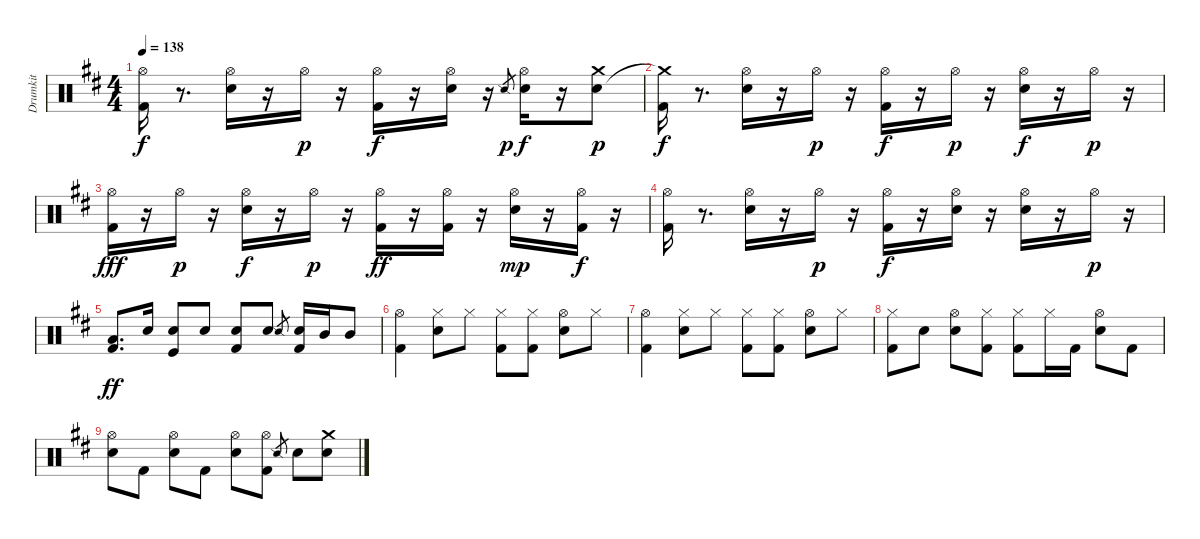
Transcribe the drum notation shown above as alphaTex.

\track ("Drumkit" "Drumkit") {instrument percussion}
\staff {score}
\articulation defaults
\ts (4 4)
\tempo 138
\clef neutral
\ks d
("Kick (hit) 2" "Hi-Hat (open)").16{dy f} r.8{d} ("Snare (hit) 2" "Hi-Hat (open)").16 r.16 "Hi-Hat (open)".16{dy p} r.16 ("Kick (hit) 2" "Hi-Hat (open)").16{dy f} r.16 ("Snare (hit) 2" "Hi-Hat (open)").16 r.16 "Snare (side stick) 2".8{gr dy p} ("Snare (hit) 2" "Hi-Hat (open)").16{dy f} r.16 ("Crash medium (hit)" "Snare (hit) 2").8{dy p} |
("Kick (hit) 2" "Crash medium (hit)"{t}).16{dy f} r.8{d} ("Snare (hit) 2" "Hi-Hat (open)").16 r.16 "Hi-Hat (open)".16{dy p} r.16 ("Kick (hit) 2" "Hi-Hat (open)").16{dy f} r.16 "Hi-Hat (open)".16{dy p} r.16 ("Snare (hit) 2" "Hi-Hat (open)").16{dy f} r.16 "Hi-Hat (open)".16{dy p} r.16 |
("Kick (hit) 2" "Hi-Hat (open)").16{dy fff} r.16 "Hi-Hat (open)".16{dy p} r.16 ("Snare (hit) 2" "Hi-Hat (open)").16{dy f} r.16 "Hi-Hat (open)".16{dy p} r.16 ("Kick (hit) 2" "Hi-Hat (open)").16{dy ff} r.16 ("Kick (hit) 2" "Hi-Hat (open)").16 r.16 ("Snare (hit) 2" "Hi-Hat (open)").16{dy mp} r.16 ("Kick (hit) 2" "Hi-Hat (open)").16{dy f} r.16 |
("Kick (hit) 2" "Hi-Hat (open)").16 r.8{d} ("Snare (hit) 2" "Hi-Hat (open)").16 r.16 "Hi-Hat (open)".16{dy p} r.16 ("Kick (hit) 2" "Hi-Hat (open)").16{dy f} r.16 ("Snare (hit) 2" "Hi-Hat (open)").16 r.16 ("Snare (hit) 2" "Hi-Hat (open)").16 r.16 "Hi-Hat (open)".16{dy p} r.16 |
("Kick (hit) 2" "Low Tom (hit)").8{d dy ff} "Snare (hit) 2".16 ("Snare (hit) 2" "Kick (hit)").8 "Snare (hit) 2".8 ("Snare (hit) 2" "Kick (hit) 2").8 "Snare (hit) 2".8 "Snare (side stick) 2".8{gr} ("Snare (hit) 2" "Kick (hit) 2").16 "Mid Tom (hit)".16 "Mid Tom (hit)".8 |
("Hi-Hat (open)" "Kick (hit) 2").4 ("Snare (hit) 2" "Hi-Hat (closed)").8 "Hi-Hat (closed)".8 ("Hi-Hat (closed)" "Kick (hit) 2").8 ("Hi-Hat (closed)" "Kick (hit) 2").8 ("Hi-Hat (open)" "Snare (hit) 2").8 "Hi-Hat (closed)".8 |
("Hi-Hat (open)" "Kick (hit) 2").4 ("Snare (hit) 2" "Hi-Hat (closed)").8 "Hi-Hat (closed)".8 ("Hi-Hat (closed)" "Kick (hit) 2").8 ("Hi-Hat (closed)" "Kick (hit) 2").8 ("Hi-Hat (open)" "Snare (hit) 2").8 "Hi-Hat (closed)".8 |
("Kick (hit) 2" "Hi-Hat (closed)").8 "Snare (hit) 2".8 ("Snare (hit) 2" "Hi-Hat (open)").8 ("Kick (hit) 2" "Hi-Hat (closed)").8 ("Kick (hit) 2" "Hi-Hat (closed)").8 "Hi-Hat (closed)".16 "Kick (hit) 2".16 ("Snare (hit) 2" "Hi-Hat (open)").8 "Kick (hit) 2".8 |
("Snare (hit) 2" "Hi-Hat (open)").8 "Kick (hit) 2".8 ("Snare (hit) 2" "Hi-Hat (open)").8 "Kick (hit) 2".8 ("Snare (hit) 2" "Hi-Hat (open)").8 ("Kick (hit) 2" "Hi-Hat (open)").8 "Snare (side stick) 2".8{gr} "Snare (hit) 2".8 ("Snare (hit) 2" "Crash medium (hit)").8
